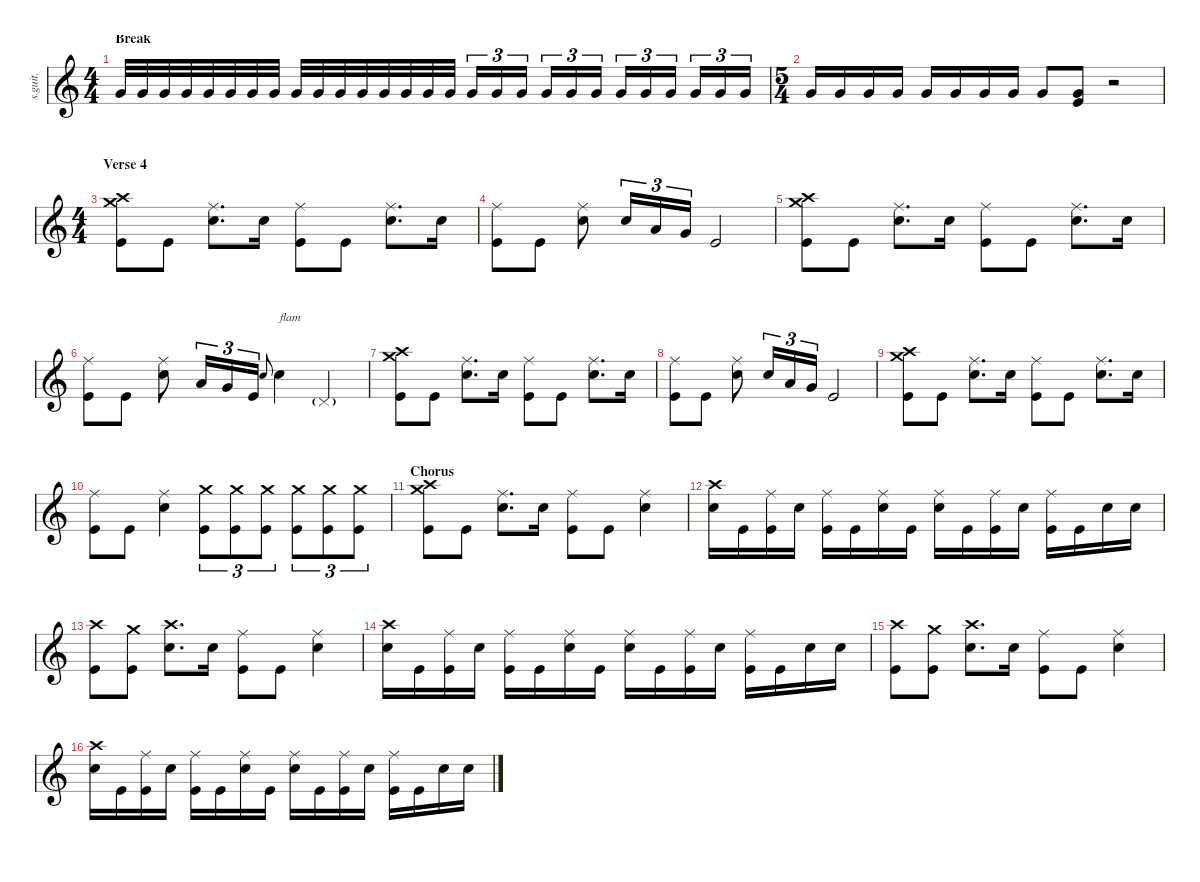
\defaultSystemsLayout 4
\hideDynamics
\bracketExtendMode nobrackets
\track ("Dave Grohl" "s.guit.") {instrument percussion}
\staff {score}
\articulation defaults
\ts (4 4)
\section ("" "Break")
\tempo (105 hide)
\clef g2
\ks c "Very Low Tom (hit)".32{lyrics (0 "") lyrics (1 "") lyrics (2 "") lyrics (3 "") lyrics (4 "") dy mp} "Very Low Tom (hit)".32{lyrics (0 "") lyrics (1 "") lyrics (2 "") lyrics (3 "") lyrics (4 "") dy mf} "Very Low Tom (hit)".32{lyrics (0 "") lyrics (1 "") lyrics (2 "") lyrics (3 "") lyrics (4 "")} "Very Low Tom (hit)".32{lyrics (0 "") lyrics (1 "") lyrics (2 "") lyrics (3 "") lyrics (4 "")} "Very Low Tom (hit)".32{lyrics (0 "") lyrics (1 "") lyrics (2 "") lyrics (3 "") lyrics (4 "")} "Very Low Tom (hit)".32{lyrics (0 "") lyrics (1 "") lyrics (2 "") lyrics (3 "") lyrics (4 "")} "Very Low Tom (hit)".32{lyrics (0 "") lyrics (1 "") lyrics (2 "") lyrics (3 "") lyrics (4 "")} "Very Low Tom (hit)".32{lyrics (0 "") lyrics (1 "") lyrics (2 "") lyrics (3 "") lyrics (4 "")} "Very Low Tom (hit)".32{lyrics (0 "") lyrics (1 "") lyrics (2 "") lyrics (3 "") lyrics (4 "")} "Very Low Tom (hit)".32{lyrics (0 "") lyrics (1 "") lyrics (2 "") lyrics (3 "") lyrics (4 "") dy f} "Very Low Tom (hit)".32{lyrics (0 "") lyrics (1 "") lyrics (2 "") lyrics (3 "") lyrics (4 "")} "Very Low Tom (hit)".32{lyrics (0 "") lyrics (1 "") lyrics (2 "") lyrics (3 "") lyrics (4 "")} "Very Low Tom (hit)".32{lyrics (0 "") lyrics (1 "") lyrics (2 "") lyrics (3 "") lyrics (4 "")} "Very Low Tom (hit)".32{lyrics (0 "") lyrics (1 "") lyrics (2 "") lyrics (3 "") lyrics (4 "")} "Very Low Tom (hit)".32{lyrics (0 "") lyrics (1 "") lyrics (2 "") lyrics (3 "") lyrics (4 "")} "Very Low Tom (hit)".32{lyrics (0 "") lyrics (1 "") lyrics (2 "") lyrics (3 "") lyrics (4 "")} "Very Low Tom (hit)".16{tu (3 2) lyrics (0 "") lyrics (1 "") lyrics (2 "") lyrics (3 "") lyrics (4 "")} "Very Low Tom (hit)".16{tu (3 2) lyrics (0 "") lyrics (1 "") lyrics (2 "") lyrics (3 "") lyrics (4 "") dy ff} "Very Low Tom (hit)".16{tu (3 2) lyrics (0 "") lyrics (1 "") lyrics (2 "") lyrics (3 "") lyrics (4 "")} "Very Low Tom (hit)".16{tu (3 2) lyrics (0 "") lyrics (1 "") lyrics (2 "") lyrics (3 "") lyrics (4 "")} "Very Low Tom (hit)".16{tu (3 2) lyrics (0 "") lyrics (1 "") lyrics (2 "") lyrics (3 "") lyrics (4 "")} "Very Low Tom (hit)".16{tu (3 2) lyrics (0 "") lyrics (1 "") lyrics (2 "") lyrics (3 "") lyrics (4 "")} "Very Low Tom (hit)".16{tu (3 2) lyrics (0 "") lyrics (1 "") lyrics (2 "") lyrics (3 "") lyrics (4 "")} "Very Low Tom (hit)".16{tu (3 2) lyrics (0 "") lyrics (1 "") lyrics (2 "") lyrics (3 "") lyrics (4 "") dy f} "Very Low Tom (hit)".16{tu (3 2) lyrics (0 "") lyrics (1 "") lyrics (2 "") lyrics (3 "") lyrics (4 "")} "Very Low Tom (hit)".16{tu (3 2) lyrics (0 "") lyrics (1 "") lyrics (2 "") lyrics (3 "") lyrics (4 "")} "Very Low Tom (hit)".16{tu (3 2) lyrics (0 "") lyrics (1 "") lyrics (2 "") lyrics (3 "") lyrics (4 "")} "Very Low Tom (hit)".16{tu (3 2) lyrics (0 "") lyrics (1 "") lyrics (2 "") lyrics (3 "") lyrics (4 "")}
|
\ts (5 4)
\beaming (8 2 2 2 2)
"Very Low Tom (hit)".16{lyrics (0 "") lyrics (1 "") lyrics (2 "") lyrics (3 "") lyrics (4 "")} "Very Low Tom (hit)".16{lyrics (0 "") lyrics (1 "") lyrics (2 "") lyrics (3 "") lyrics (4 "") dy mf} "Very Low Tom (hit)".16{lyrics (0 "") lyrics (1 "") lyrics (2 "") lyrics (3 "") lyrics (4 "")} "Very Low Tom (hit)".16{lyrics (0 "") lyrics (1 "") lyrics (2 "") lyrics (3 "") lyrics (4 "")} "Very Low Tom (hit)".16{lyrics (0 "") lyrics (1 "") lyrics (2 "") lyrics (3 "") lyrics (4 "")} "Very Low Tom (hit)".16{lyrics (0 "") lyrics (1 "") lyrics (2 "") lyrics (3 "") lyrics (4 "") dy mp} "Very Low Tom (hit)".16{lyrics (0 "") lyrics (1 "") lyrics (2 "") lyrics (3 "") lyrics (4 "")} "Very Low Tom (hit)".16{lyrics (0 "") lyrics (1 "") lyrics (2 "") lyrics (3 "") lyrics (4 "")} "Very Low Tom (hit)".8{lyrics (0 "") lyrics (1 "") lyrics (2 "") lyrics (3 "") lyrics (4 "")} ("Very Low Tom (hit)" "Kick (hit)").8{lyrics (0 "") lyrics (1 "") lyrics (2 "") lyrics (3 "") lyrics (4 "")} r.2 |
\ts (4 4)
\beaming (8 2 2 2 2)
\section ("" "Verse 4")
("Crash high (hit)" "Crash medium (hit)" "Kick (hit)").8{lyrics (0 "") lyrics (1 "") lyrics (2 "") lyrics (3 "") lyrics (4 "") dy mf} "Kick (hit)".8{lyrics (0 "") lyrics (1 "") lyrics (2 "") lyrics (3 "") lyrics (4 "") dy f} ("Ride (middle)" "Snare (hit) 2").8{d lyrics (0 "") lyrics (1 "") lyrics (2 "") lyrics (3 "") lyrics (4 "")} "Snare (hit) 2".16{lyrics (0 "") lyrics (1 "") lyrics (2 "") lyrics (3 "") lyrics (4 "")} ("Ride (middle)" "Kick (hit)").8{lyrics (0 "") lyrics (1 "") lyrics (2 "") lyrics (3 "") lyrics (4 "") dy mf} "Kick (hit)".8{lyrics (0 "") lyrics (1 "") lyrics (2 "") lyrics (3 "") lyrics (4 "") dy f} ("Ride (middle)" "Snare (hit) 2").8{d lyrics (0 "") lyrics (1 "") lyrics (2 "") lyrics (3 "") lyrics (4 "")} "Snare (hit) 2".16{lyrics (0 "") lyrics (1 "") lyrics (2 "") lyrics (3 "") lyrics (4 "")} |
("Ride (middle)" "Kick (hit)").8{lyrics (0 "") lyrics (1 "") lyrics (2 "") lyrics (3 "") lyrics (4 "") dy mf} "Kick (hit)".8{lyrics (0 "") lyrics (1 "") lyrics (2 "") lyrics (3 "") lyrics (4 "") dy f} ("Ride (middle)" "Snare (hit) 2").8{lyrics (0 "") lyrics (1 "") lyrics (2 "") lyrics (3 "") lyrics (4 "")} "Snare (hit) 2".16{tu (3 2) lyrics (0 "") lyrics (1 "") lyrics (2 "") lyrics (3 "") lyrics (4 "")} "Low Floor Tom (hit)".16{tu (3 2) lyrics (0 "") lyrics (1 "") lyrics (2 "") lyrics (3 "") lyrics (4 "")} "Very Low Tom (hit)".16{tu (3 2) lyrics (0 "") lyrics (1 "") lyrics (2 "") lyrics (3 "") lyrics (4 "")} "Kick (hit)".2{lyrics (0 "") lyrics (1 "") lyrics (2 "") lyrics (3 "") lyrics (4 "")} |
("Crash high (hit)" "Crash medium (hit)" "Kick (hit)").8{lyrics (0 "") lyrics (1 "") lyrics (2 "") lyrics (3 "") lyrics (4 "") dy mf} "Kick (hit)".8{lyrics (0 "") lyrics (1 "") lyrics (2 "") lyrics (3 "") lyrics (4 "") dy f} ("Ride (middle)" "Snare (hit) 2").8{d lyrics (0 "") lyrics (1 "") lyrics (2 "") lyrics (3 "") lyrics (4 "")} "Snare (hit) 2".16{lyrics (0 "") lyrics (1 "") lyrics (2 "") lyrics (3 "") lyrics (4 "")} ("Ride (middle)" "Kick (hit)").8{lyrics (0 "") lyrics (1 "") lyrics (2 "") lyrics (3 "") lyrics (4 "")} "Kick (hit)".8{lyrics (0 "") lyrics (1 "") lyrics (2 "") lyrics (3 "") lyrics (4 "")} ("Ride (middle)" "Snare (hit) 2").8{d lyrics (0 "") lyrics (1 "") lyrics (2 "") lyrics (3 "") lyrics (4 "")} "Snare (hit) 2".16{lyrics (0 "") lyrics (1 "") lyrics (2 "") lyrics (3 "") lyrics (4 "")} |
("Ride (middle)" "Kick (hit)").8{lyrics (0 "") lyrics (1 "") lyrics (2 "") lyrics (3 "") lyrics (4 "")} "Kick (hit)".8{lyrics (0 "") lyrics (1 "") lyrics (2 "") lyrics (3 "") lyrics (4 "")} ("Ride (middle)" "Snare (hit) 2").8{lyrics (0 "") lyrics (1 "") lyrics (2 "") lyrics (3 "") lyrics (4 "")} "Low Floor Tom (hit)".16{tu (3 2) lyrics (0 "") lyrics (1 "") lyrics (2 "") lyrics (3 "") lyrics (4 "")} "Very Low Tom (hit)".16{tu (3 2) lyrics (0 "") lyrics (1 "") lyrics (2 "") lyrics (3 "") lyrics (4 "")} "Kick (hit)".16{tu (3 2) lyrics (0 "") lyrics (1 "") lyrics (2 "") lyrics (3 "") lyrics (4 "")} "Snare (hit) 2".8{lyrics (0 "") lyrics (1 "") lyrics (2 "") lyrics (3 "") lyrics (4 "") gr onbeat} "Snare (hit) 2".4{txt "flam" lyrics (0 "") lyrics (1 "") lyrics (2 "") lyrics (3 "") lyrics (4 "")} "Pedal Hi-Hat (hit)"{g}.4{lyrics (0 "") lyrics (1 "") lyrics (2 "") lyrics (3 "") lyrics (4 "")} |
("Crash high (hit)" "Crash medium (hit)" "Kick (hit)").8{lyrics (0 "") lyrics (1 "") lyrics (2 "") lyrics (3 "") lyrics (4 "") dy mf} "Kick (hit)".8{lyrics (0 "") lyrics (1 "") lyrics (2 "") lyrics (3 "") lyrics (4 "") dy f} ("Ride (middle)" "Snare (hit) 2").8{d lyrics (0 "") lyrics (1 "") lyrics (2 "") lyrics (3 "") lyrics (4 "")} "Snare (hit) 2".16{lyrics (0 "") lyrics (1 "") lyrics (2 "") lyrics (3 "") lyrics (4 "")} ("Ride (middle)" "Kick (hit)").8{lyrics (0 "") lyrics (1 "") lyrics (2 "") lyrics (3 "") lyrics (4 "") dy mf} "Kick (hit)".8{lyrics (0 "") lyrics (1 "") lyrics (2 "") lyrics (3 "") lyrics (4 "") dy f} ("Ride (middle)" "Snare (hit) 2").8{d lyrics (0 "") lyrics (1 "") lyrics (2 "") lyrics (3 "") lyrics (4 "")} "Snare (hit) 2".16{lyrics (0 "") lyrics (1 "") lyrics (2 "") lyrics (3 "") lyrics (4 "")} |
("Ride (middle)" "Kick (hit)").8{lyrics (0 "") lyrics (1 "") lyrics (2 "") lyrics (3 "") lyrics (4 "") dy mf} "Kick (hit)".8{lyrics (0 "") lyrics (1 "") lyrics (2 "") lyrics (3 "") lyrics (4 "") dy f} ("Ride (middle)" "Snare (hit) 2").8{lyrics (0 "") lyrics (1 "") lyrics (2 "") lyrics (3 "") lyrics (4 "")} "Snare (hit) 2".16{tu (3 2) lyrics (0 "") lyrics (1 "") lyrics (2 "") lyrics (3 "") lyrics (4 "")} "Low Floor Tom (hit)".16{tu (3 2) lyrics (0 "") lyrics (1 "") lyrics (2 "") lyrics (3 "") lyrics (4 "")} "Very Low Tom (hit)".16{tu (3 2) lyrics (0 "") lyrics (1 "") lyrics (2 "") lyrics (3 "") lyrics (4 "")} "Kick (hit)".2{lyrics (0 "") lyrics (1 "") lyrics (2 "") lyrics (3 "") lyrics (4 "")} |
("Crash high (hit)" "Crash medium (hit)" "Kick (hit)").8{lyrics (0 "") lyrics (1 "") lyrics (2 "") lyrics (3 "") lyrics (4 "") dy mf} "Kick (hit)".8{lyrics (0 "") lyrics (1 "") lyrics (2 "") lyrics (3 "") lyrics (4 "") dy f} ("Ride (middle)" "Snare (hit) 2").8{d lyrics (0 "") lyrics (1 "") lyrics (2 "") lyrics (3 "") lyrics (4 "")} "Snare (hit) 2".16{lyrics (0 "") lyrics (1 "") lyrics (2 "") lyrics (3 "") lyrics (4 "")} ("Ride (middle)" "Kick (hit)").8{lyrics (0 "") lyrics (1 "") lyrics (2 "") lyrics (3 "") lyrics (4 "") dy mf} "Kick (hit)".8{lyrics (0 "") lyrics (1 "") lyrics (2 "") lyrics (3 "") lyrics (4 "") dy f} ("Ride (middle)" "Snare (hit) 2").8{d lyrics (0 "") lyrics (1 "") lyrics (2 "") lyrics (3 "") lyrics (4 "")} "Snare (hit) 2".16{lyrics (0 "") lyrics (1 "") lyrics (2 "") lyrics (3 "") lyrics (4 "")} |
("Ride (middle)" "Kick (hit)").8{lyrics (0 "") lyrics (1 "") lyrics (2 "") lyrics (3 "") lyrics (4 "") dy mf} "Kick (hit)".8{lyrics (0 "") lyrics (1 "") lyrics (2 "") lyrics (3 "") lyrics (4 "") dy f} ("Ride (middle)" "Snare (hit) 2").4{lyrics (0 "") lyrics (1 "") lyrics (2 "") lyrics (3 "") lyrics (4 "")} ("Crash medium (hit)" "Kick (hit)").8{tu (3 2) lyrics (0 "") lyrics (1 "") lyrics (2 "") lyrics (3 "") lyrics (4 "")} ("Crash medium (hit)" "Kick (hit)").8{tu (3 2) lyrics (0 "") lyrics (1 "") lyrics (2 "") lyrics (3 "") lyrics (4 "")} ("Crash medium (hit)" "Kick (hit)").8{tu (3 2) lyrics (0 "") lyrics (1 "") lyrics (2 "") lyrics (3 "") lyrics (4 "")} ("Crash medium (hit)" "Kick (hit)").8{tu (3 2) lyrics (0 "") lyrics (1 "") lyrics (2 "") lyrics (3 "") lyrics (4 "")} ("Crash medium (hit)" "Kick (hit)").8{tu (3 2) lyrics (0 "") lyrics (1 "") lyrics (2 "") lyrics (3 "") lyrics (4 "")} ("Crash medium (hit)" "Kick (hit)").8{tu (3 2) lyrics (0 "") lyrics (1 "") lyrics (2 "") lyrics (3 "") lyrics (4 "")} |
\section ("" "Chorus")
("Crash high (hit)" "Crash medium (hit)" "Kick (hit)").8{lyrics (0 "") lyrics (1 "") lyrics (2 "") lyrics (3 "") lyrics (4 "")} "Kick (hit)".8{lyrics (0 "") lyrics (1 "") lyrics (2 "") lyrics (3 "") lyrics (4 "")} ("Ride (middle)" "Snare (hit) 2").8{d lyrics (0 "") lyrics (1 "") lyrics (2 "") lyrics (3 "") lyrics (4 "")} "Snare (hit) 2".16{lyrics (0 "") lyrics (1 "") lyrics (2 "") lyrics (3 "") lyrics (4 "")} ("Ride (middle)" "Kick (hit)").8{lyrics (0 "") lyrics (1 "") lyrics (2 "") lyrics (3 "") lyrics (4 "")} "Kick (hit)".8{lyrics (0 "") lyrics (1 "") lyrics (2 "") lyrics (3 "") lyrics (4 "")} ("Ride (middle)" "Snare (hit) 2").4{lyrics (0 "") lyrics (1 "") lyrics (2 "") lyrics (3 "") lyrics (4 "")} |
("Crash high (hit)" "Snare (hit) 2").16{lyrics (0 "") lyrics (1 "") lyrics (2 "") lyrics (3 "") lyrics (4 "")} "Kick (hit)".16{lyrics (0 "") lyrics (1 "") lyrics (2 "") lyrics (3 "") lyrics (4 "")} ("Ride (middle)" "Kick (hit)").16{lyrics (0 "") lyrics (1 "") lyrics (2 "") lyrics (3 "") lyrics (4 "")} "Snare (hit) 2".16{lyrics (0 "") lyrics (1 "") lyrics (2 "") lyrics (3 "") lyrics (4 "")} ("Ride (middle)" "Kick (hit)").16{lyrics (0 "") lyrics (1 "") lyrics (2 "") lyrics (3 "") lyrics (4 "")} "Kick (hit)".16{lyrics (0 "") lyrics (1 "") lyrics (2 "") lyrics (3 "") lyrics (4 "")} ("Ride (middle)" "Snare (hit) 2").16{lyrics (0 "") lyrics (1 "") lyrics (2 "") lyrics (3 "") lyrics (4 "")} "Kick (hit)".16{lyrics (0 "") lyrics (1 "") lyrics (2 "") lyrics (3 "") lyrics (4 "")} ("Ride (middle)" "Snare (hit) 2").16{lyrics (0 "") lyrics (1 "") lyrics (2 "") lyrics (3 "") lyrics (4 "")} "Kick (hit)".16{lyrics (0 "") lyrics (1 "") lyrics (2 "") lyrics (3 "") lyrics (4 "")} ("Ride (middle)" "Kick (hit)").16{lyrics (0 "") lyrics (1 "") lyrics (2 "") lyrics (3 "") lyrics (4 "")} "Snare (hit) 2".16{lyrics (0 "") lyrics (1 "") lyrics (2 "") lyrics (3 "") lyrics (4 "")} ("Ride (middle)" "Kick (hit)").16{lyrics (0 "") lyrics (1 "") lyrics (2 "") lyrics (3 "") lyrics (4 "")} "Kick (hit)".16{lyrics (0 "") lyrics (1 "") lyrics (2 "") lyrics (3 "") lyrics (4 "")} "Snare (hit) 2".16{lyrics (0 "") lyrics (1 "") lyrics (2 "") lyrics (3 "") lyrics (4 "")} "Snare (hit) 2".16{lyrics (0 "") lyrics (1 "") lyrics (2 "") lyrics (3 "") lyrics (4 "")} |
("Crash high (hit)" "Kick (hit)").8{lyrics (0 "") lyrics (1 "") lyrics (2 "") lyrics (3 "") lyrics (4 "")} ("Kick (hit)" "Crash medium (hit)").8{lyrics (0 "") lyrics (1 "") lyrics (2 "") lyrics (3 "") lyrics (4 "")} ("Snare (hit) 2" "Crash high (hit)").8{d lyrics (0 "") lyrics (1 "") lyrics (2 "") lyrics (3 "") lyrics (4 "")} "Snare (hit) 2".16{lyrics (0 "") lyrics (1 "") lyrics (2 "") lyrics (3 "") lyrics (4 "")} ("Ride (middle)" "Kick (hit)").8{lyrics (0 "") lyrics (1 "") lyrics (2 "") lyrics (3 "") lyrics (4 "")} "Kick (hit)".8{lyrics (0 "") lyrics (1 "") lyrics (2 "") lyrics (3 "") lyrics (4 "")} ("Ride (middle)" "Snare (hit) 2").4{lyrics (0 "") lyrics (1 "") lyrics (2 "") lyrics (3 "") lyrics (4 "")} |
("Crash high (hit)" "Snare (hit) 2").16{lyrics (0 "") lyrics (1 "") lyrics (2 "") lyrics (3 "") lyrics (4 "")} "Kick (hit)".16{lyrics (0 "") lyrics (1 "") lyrics (2 "") lyrics (3 "") lyrics (4 "")} ("Ride (middle)" "Kick (hit)").16{lyrics (0 "") lyrics (1 "") lyrics (2 "") lyrics (3 "") lyrics (4 "")} "Snare (hit) 2".16{lyrics (0 "") lyrics (1 "") lyrics (2 "") lyrics (3 "") lyrics (4 "")} ("Ride (middle)" "Kick (hit)").16{lyrics (0 "") lyrics (1 "") lyrics (2 "") lyrics (3 "") lyrics (4 "")} "Kick (hit)".16{lyrics (0 "") lyrics (1 "") lyrics (2 "") lyrics (3 "") lyrics (4 "")} ("Ride (middle)" "Snare (hit) 2").16{lyrics (0 "") lyrics (1 "") lyrics (2 "") lyrics (3 "") lyrics (4 "")} "Kick (hit)".16{lyrics (0 "") lyrics (1 "") lyrics (2 "") lyrics (3 "") lyrics (4 "")} ("Ride (middle)" "Snare (hit) 2").16{lyrics (0 "") lyrics (1 "") lyrics (2 "") lyrics (3 "") lyrics (4 "")} "Kick (hit)".16{lyrics (0 "") lyrics (1 "") lyrics (2 "") lyrics (3 "") lyrics (4 "")} ("Ride (middle)" "Kick (hit)").16{lyrics (0 "") lyrics (1 "") lyrics (2 "") lyrics (3 "") lyrics (4 "")} "Snare (hit) 2".16{lyrics (0 "") lyrics (1 "") lyrics (2 "") lyrics (3 "") lyrics (4 "")} ("Ride (middle)" "Kick (hit)").16{lyrics (0 "") lyrics (1 "") lyrics (2 "") lyrics (3 "") lyrics (4 "")} "Kick (hit)".16{lyrics (0 "") lyrics (1 "") lyrics (2 "") lyrics (3 "") lyrics (4 "")} "Snare (hit) 2".16{lyrics (0 "") lyrics (1 "") lyrics (2 "") lyrics (3 "") lyrics (4 "")} "Snare (hit) 2".16{lyrics (0 "") lyrics (1 "") lyrics (2 "") lyrics (3 "") lyrics (4 "")} |
("Crash high (hit)" "Kick (hit)").8{lyrics (0 "") lyrics (1 "") lyrics (2 "") lyrics (3 "") lyrics (4 "")} ("Kick (hit)" "Crash medium (hit)").8{lyrics (0 "") lyrics (1 "") lyrics (2 "") lyrics (3 "") lyrics (4 "")} ("Snare (hit) 2" "Crash high (hit)").8{d lyrics (0 "") lyrics (1 "") lyrics (2 "") lyrics (3 "") lyrics (4 "")} "Snare (hit) 2".16{lyrics (0 "") lyrics (1 "") lyrics (2 "") lyrics (3 "") lyrics (4 "")} ("Ride (middle)" "Kick (hit)").8{lyrics (0 "") lyrics (1 "") lyrics (2 "") lyrics (3 "") lyrics (4 "")} "Kick (hit)".8{lyrics (0 "") lyrics (1 "") lyrics (2 "") lyrics (3 "") lyrics (4 "")} ("Ride (middle)" "Snare (hit) 2").4{lyrics (0 "") lyrics (1 "") lyrics (2 "") lyrics (3 "") lyrics (4 "")} |
("Crash high (hit)" "Snare (hit) 2").16{lyrics (0 "") lyrics (1 "") lyrics (2 "") lyrics (3 "") lyrics (4 "")} "Kick (hit)".16{lyrics (0 "") lyrics (1 "") lyrics (2 "") lyrics (3 "") lyrics (4 "")} ("Ride (middle)" "Kick (hit)").16{lyrics (0 "") lyrics (1 "") lyrics (2 "") lyrics (3 "") lyrics (4 "")} "Snare (hit) 2".16{lyrics (0 "") lyrics (1 "") lyrics (2 "") lyrics (3 "") lyrics (4 "")} ("Ride (middle)" "Kick (hit)").16{lyrics (0 "") lyrics (1 "") lyrics (2 "") lyrics (3 "") lyrics (4 "")} "Kick (hit)".16{lyrics (0 "") lyrics (1 "") lyrics (2 "") lyrics (3 "") lyrics (4 "")} ("Ride (middle)" "Snare (hit) 2").16{lyrics (0 "") lyrics (1 "") lyrics (2 "") lyrics (3 "") lyrics (4 "")} "Kick (hit)".16{lyrics (0 "") lyrics (1 "") lyrics (2 "") lyrics (3 "") lyrics (4 "")} ("Ride (middle)" "Snare (hit) 2").16{lyrics (0 "") lyrics (1 "") lyrics (2 "") lyrics (3 "") lyrics (4 "")} "Kick (hit)".16{lyrics (0 "") lyrics (1 "") lyrics (2 "") lyrics (3 "") lyrics (4 "")} ("Ride (middle)" "Kick (hit)").16{lyrics (0 "") lyrics (1 "") lyrics (2 "") lyrics (3 "") lyrics (4 "")} "Snare (hit) 2".16{lyrics (0 "") lyrics (1 "") lyrics (2 "") lyrics (3 "") lyrics (4 "")} ("Ride (middle)" "Kick (hit)").16{lyrics (0 "") lyrics (1 "") lyrics (2 "") lyrics (3 "") lyrics (4 "")} "Kick (hit)".16{lyrics (0 "") lyrics (1 "") lyrics (2 "") lyrics (3 "") lyrics (4 "")} "Snare (hit) 2".16{lyrics (0 "") lyrics (1 "") lyrics (2 "") lyrics (3 "") lyrics (4 "")} "Snare (hit) 2".16{lyrics (0 "") lyrics (1 "") lyrics (2 "") lyrics (3 "") lyrics (4 "")}
